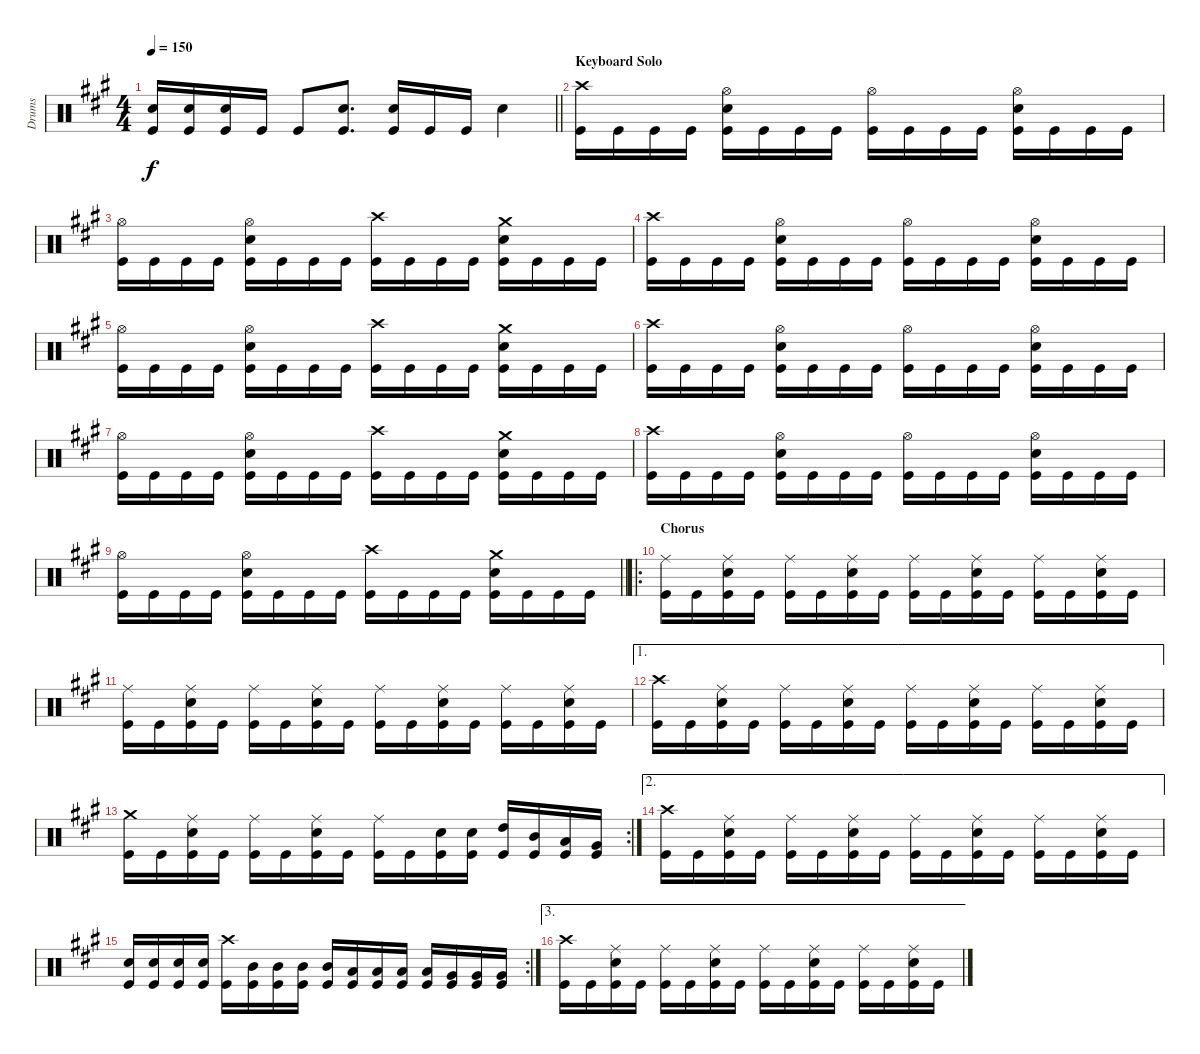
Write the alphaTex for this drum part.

\track ("Drums" "Drums") {instrument percussion}
\staff {score}
\articulation defaults
\ts (4 4)
\tempo 150
\clef neutral
\barLineRight lightlight
\ks f#minor
("Kick (hit)" "Snare (hit) 2").16{dy f} ("Kick (hit)" "Snare (hit) 2").16 ("Kick (hit)" "Snare (hit) 2").16 "Kick (hit)".16 "Kick (hit)".8 ("Snare (hit) 2" "Kick (hit)").8{d} ("Snare (hit) 2" "Kick (hit)").16 "Kick (hit)".16 "Kick (hit)".16 "Snare (hit) 2".4 |
\section ("" "Keyboard Solo")
("Kick (hit)" "Crash high (hit)").16 "Kick (hit)".16 "Kick (hit)".16 "Kick (hit)".16 ("Kick (hit)" "Snare (hit) 2" "Hi-Hat (open)").16 "Kick (hit)".16 "Kick (hit)".16 "Kick (hit)".16 ("Kick (hit)" "Hi-Hat (open)").16 "Kick (hit)".16 "Kick (hit)".16 "Kick (hit)".16 ("Kick (hit)" "Snare (hit) 2" "Hi-Hat (open)").16 "Kick (hit)".16 "Kick (hit)".16 "Kick (hit)".16 |
("Kick (hit)" "Hi-Hat (open)").16 "Kick (hit)".16 "Kick (hit)".16 "Kick (hit)".16 ("Kick (hit)" "Snare (hit) 2" "Hi-Hat (open)").16 "Kick (hit)".16 "Kick (hit)".16 "Kick (hit)".16 ("Kick (hit)" "Crash high (hit)").16 "Kick (hit)".16 "Kick (hit)".16 "Kick (hit)".16 ("Kick (hit)" "Snare (hit) 2" "Crash medium (hit)").16 "Kick (hit)".16 "Kick (hit)".16 "Kick (hit)".16 |
("Kick (hit)" "Crash high (hit)").16 "Kick (hit)".16 "Kick (hit)".16 "Kick (hit)".16 ("Kick (hit)" "Snare (hit) 2" "Hi-Hat (open)").16 "Kick (hit)".16 "Kick (hit)".16 "Kick (hit)".16 ("Kick (hit)" "Hi-Hat (open)").16 "Kick (hit)".16 "Kick (hit)".16 "Kick (hit)".16 ("Kick (hit)" "Snare (hit) 2" "Hi-Hat (open)").16 "Kick (hit)".16 "Kick (hit)".16 "Kick (hit)".16 |
("Kick (hit)" "Hi-Hat (open)").16 "Kick (hit)".16 "Kick (hit)".16 "Kick (hit)".16 ("Kick (hit)" "Snare (hit) 2" "Hi-Hat (open)").16 "Kick (hit)".16 "Kick (hit)".16 "Kick (hit)".16 ("Kick (hit)" "Crash high (hit)").16 "Kick (hit)".16 "Kick (hit)".16 "Kick (hit)".16 ("Kick (hit)" "Snare (hit) 2" "Crash medium (hit)").16 "Kick (hit)".16 "Kick (hit)".16 "Kick (hit)".16 |
("Kick (hit)" "Crash high (hit)").16 "Kick (hit)".16 "Kick (hit)".16 "Kick (hit)".16 ("Kick (hit)" "Snare (hit) 2" "Hi-Hat (open)").16 "Kick (hit)".16 "Kick (hit)".16 "Kick (hit)".16 ("Kick (hit)" "Hi-Hat (open)").16 "Kick (hit)".16 "Kick (hit)".16 "Kick (hit)".16 ("Kick (hit)" "Snare (hit) 2" "Hi-Hat (open)").16 "Kick (hit)".16 "Kick (hit)".16 "Kick (hit)".16 |
("Kick (hit)" "Hi-Hat (open)").16 "Kick (hit)".16 "Kick (hit)".16 "Kick (hit)".16 ("Kick (hit)" "Snare (hit) 2" "Hi-Hat (open)").16 "Kick (hit)".16 "Kick (hit)".16 "Kick (hit)".16 ("Kick (hit)" "Crash high (hit)").16 "Kick (hit)".16 "Kick (hit)".16 "Kick (hit)".16 ("Kick (hit)" "Snare (hit) 2" "Crash medium (hit)").16 "Kick (hit)".16 "Kick (hit)".16 "Kick (hit)".16 |
("Kick (hit)" "Crash high (hit)").16 "Kick (hit)".16 "Kick (hit)".16 "Kick (hit)".16 ("Kick (hit)" "Snare (hit) 2" "Hi-Hat (open)").16 "Kick (hit)".16 "Kick (hit)".16 "Kick (hit)".16 ("Kick (hit)" "Hi-Hat (open)").16 "Kick (hit)".16 "Kick (hit)".16 "Kick (hit)".16 ("Kick (hit)" "Snare (hit) 2" "Hi-Hat (open)").16 "Kick (hit)".16 "Kick (hit)".16 "Kick (hit)".16 |
\barLineRight lightlight
("Kick (hit)" "Hi-Hat (open)").16 "Kick (hit)".16 "Kick (hit)".16 "Kick (hit)".16 ("Kick (hit)" "Snare (hit) 2" "Hi-Hat (open)").16 "Kick (hit)".16 "Kick (hit)".16 "Kick (hit)".16 ("Kick (hit)" "Crash high (hit)").16 "Kick (hit)".16 "Kick (hit)".16 "Kick (hit)".16 ("Kick (hit)" "Snare (hit) 2" "Crash medium (hit)").16 "Kick (hit)".16 "Kick (hit)".16 "Kick (hit)".16 |
\ro
\section ("" "Chorus")
("Kick (hit)" "Ride (middle)").16 "Kick (hit)".16 ("Kick (hit)" "Snare (hit) 2" "Ride (middle)").16 "Kick (hit)".16 ("Kick (hit)" "Ride (middle)").16 "Kick (hit)".16 ("Kick (hit)" "Snare (hit) 2" "Ride (middle)").16 "Kick (hit)".16 ("Kick (hit)" "Ride (middle)").16 "Kick (hit)".16 ("Kick (hit)" "Snare (hit) 2" "Ride (middle)").16 "Kick (hit)".16 ("Kick (hit)" "Ride (middle)").16 "Kick (hit)".16 ("Kick (hit)" "Snare (hit) 2" "Ride (middle)").16 "Kick (hit)".16 |
("Kick (hit)" "Ride (middle)").16 "Kick (hit)".16 ("Kick (hit)" "Snare (hit) 2" "Ride (middle)").16 "Kick (hit)".16 ("Kick (hit)" "Ride (middle)").16 "Kick (hit)".16 ("Kick (hit)" "Snare (hit) 2" "Ride (middle)").16 "Kick (hit)".16 ("Kick (hit)" "Ride (middle)").16 "Kick (hit)".16 ("Kick (hit)" "Snare (hit) 2" "Ride (middle)").16 "Kick (hit)".16 ("Kick (hit)" "Ride (middle)").16 "Kick (hit)".16 ("Kick (hit)" "Snare (hit) 2" "Ride (middle)").16 "Kick (hit)".16 |
\ae 1
("Kick (hit)" "Crash high (hit)").16 "Kick (hit)".16 ("Kick (hit)" "Snare (hit) 2" "Ride (middle)").16 "Kick (hit)".16 ("Kick (hit)" "Ride (middle)").16 "Kick (hit)".16 ("Kick (hit)" "Snare (hit) 2" "Ride (middle)").16 "Kick (hit)".16 ("Kick (hit)" "Ride (middle)").16 "Kick (hit)".16 ("Kick (hit)" "Snare (hit) 2" "Ride (middle)").16 "Kick (hit)".16 ("Kick (hit)" "Ride (middle)").16 "Kick (hit)".16 ("Kick (hit)" "Snare (hit) 2" "Ride (middle)").16 "Kick (hit)".16 |
\rc 2
("Kick (hit)" "Crash medium (hit)").16 "Kick (hit)".16 ("Kick (hit)" "Snare (hit) 2" "Ride (middle)").16 "Kick (hit)".16 ("Kick (hit)" "Ride (middle)").16 "Kick (hit)".16 ("Kick (hit)" "Snare (hit) 2" "Ride (middle)").16 "Kick (hit)".16 ("Kick (hit)" "Ride (middle)").16 "Kick (hit)".16 ("Kick (hit)" "Snare (hit) 2").16 ("Kick (hit)" "Snare (hit) 2").16 ("Kick (hit)" "High Tom (hit)").16 ("Mid Tom (hit)" "Kick (hit)").16 ("Kick (hit)" "Low Tom (hit)").16 ("Kick (hit)" "Very Low Tom (hit)").16 |
\ae 2
("Kick (hit)" "Crash high (hit)").16 "Kick (hit)".16 ("Kick (hit)" "Snare (hit) 2" "Ride (middle)").16 "Kick (hit)".16 ("Kick (hit)" "Ride (middle)").16 "Kick (hit)".16 ("Kick (hit)" "Snare (hit) 2" "Ride (middle)").16 "Kick (hit)".16 ("Kick (hit)" "Ride (middle)").16 "Kick (hit)".16 ("Kick (hit)" "Snare (hit) 2" "Ride (middle)").16 "Kick (hit)".16 ("Kick (hit)" "Ride (middle)").16 "Kick (hit)".16 ("Kick (hit)" "Snare (hit) 2" "Ride (middle)").16 "Kick (hit)".16 |
\rc 2
("Kick (hit)" "Snare (hit) 2").16 ("Kick (hit)" "Snare (hit) 2").16 ("Kick (hit)" "Snare (hit) 2").16 ("Kick (hit)" "Snare (hit) 2").16 ("Kick (hit)" "Crash high (hit)").16 ("Kick (hit)" "Mid Tom (hit)").16 ("Kick (hit)" "Mid Tom (hit)").16 ("Kick (hit)" "Mid Tom (hit)").16 ("Kick (hit)" "Mid Tom (hit)").16 ("Kick (hit)" "Low Tom (hit)").16 ("Kick (hit)" "Low Tom (hit)").16 ("Kick (hit)" "Low Tom (hit)").16 ("Kick (hit)" "Low Tom (hit)").16 ("Kick (hit)" "Very Low Tom (hit)").16 ("Kick (hit)" "Very Low Tom (hit)").16 ("Kick (hit)" "Very Low Tom (hit)").16 |
\ae 3
("Kick (hit)" "Crash high (hit)").16 "Kick (hit)".16 ("Kick (hit)" "Snare (hit) 2" "Ride (middle)").16 "Kick (hit)".16 ("Kick (hit)" "Ride (middle)").16 "Kick (hit)".16 ("Kick (hit)" "Snare (hit) 2" "Ride (middle)").16 "Kick (hit)".16 ("Kick (hit)" "Ride (middle)").16 "Kick (hit)".16 ("Kick (hit)" "Snare (hit) 2" "Ride (middle)").16 "Kick (hit)".16 ("Kick (hit)" "Ride (middle)").16 "Kick (hit)".16 ("Kick (hit)" "Snare (hit) 2" "Ride (middle)").16 "Kick (hit)".16
